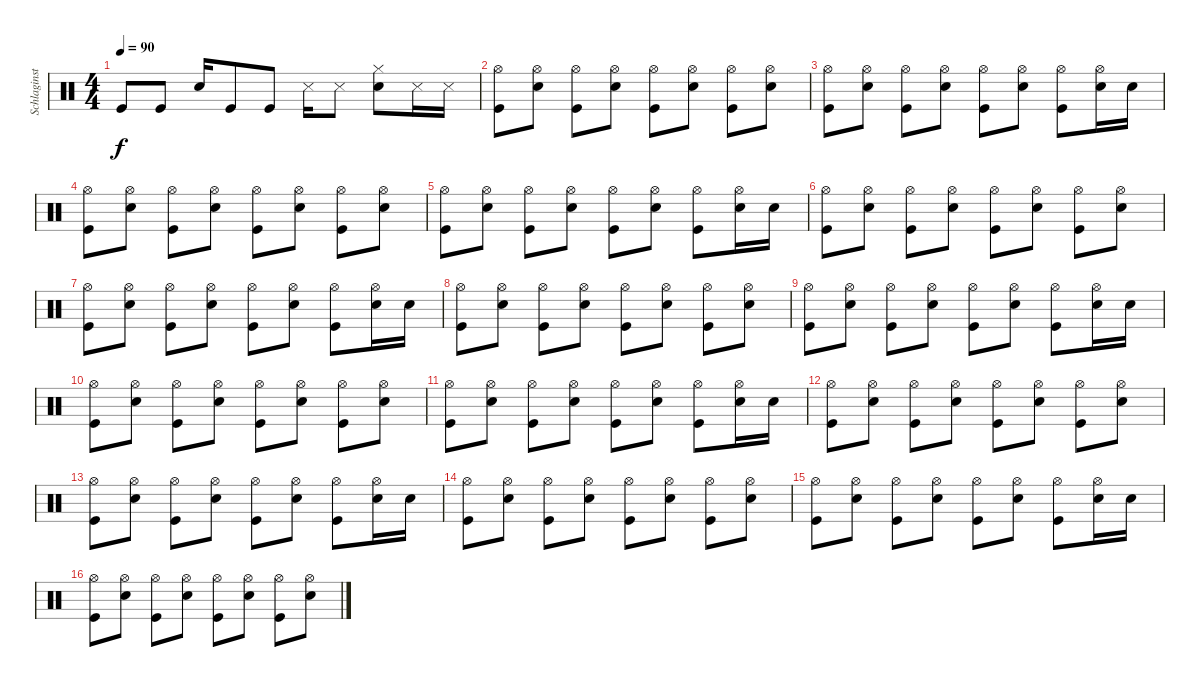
\track ("Schlaginstrumente - Auswahl" "Schlaginst") {instrument percussion}
\staff {score}
\articulation defaults
\ts (4 4)
\tempo 90
\clef neutral
\ks c "Kick (hit)".8{dy f} "Kick (hit)".8 "Snare (hit) 2".16 "Kick (hit)".8 "Kick (hit)".8 "Snare (side stick) 3".16 "Snare (side stick) 3".8
("Hi-Hat (closed)" "Snare (hit) 2").8 "Snare (side stick) 3".16 "Snare (side stick) 3".16 |
("Hi-Hat (open)" "Kick (hit)").8 ("Hi-Hat (open)" "Snare (hit) 2").8 ("Hi-Hat (open)" "Kick (hit)").8 ("Hi-Hat (open)" "Snare (hit) 2").8 ("Hi-Hat (open)" "Kick (hit)").8 ("Hi-Hat (open)" "Snare (hit) 2").8 ("Hi-Hat (open)" "Kick (hit)").8 ("Hi-Hat (open)" "Snare (hit) 2").8 |
("Hi-Hat (open)" "Kick (hit)").8 ("Hi-Hat (open)" "Snare (hit) 2").8 ("Hi-Hat (open)" "Kick (hit)").8 ("Hi-Hat (open)" "Snare (hit) 2").8 ("Hi-Hat (open)" "Kick (hit)").8 ("Hi-Hat (open)" "Snare (hit) 2").8 ("Hi-Hat (open)" "Kick (hit)").8 ("Hi-Hat (open)" "Snare (hit) 2").16 "Snare (hit) 2".16 |
("Hi-Hat (open)" "Kick (hit)").8 ("Hi-Hat (open)" "Snare (hit) 2").8 ("Hi-Hat (open)" "Kick (hit)").8 ("Hi-Hat (open)" "Snare (hit) 2").8 ("Hi-Hat (open)" "Kick (hit)").8 ("Hi-Hat (open)" "Snare (hit) 2").8 ("Hi-Hat (open)" "Kick (hit)").8 ("Hi-Hat (open)" "Snare (hit) 2").8 |
("Hi-Hat (open)" "Kick (hit)").8 ("Hi-Hat (open)" "Snare (hit) 2").8 ("Hi-Hat (open)" "Kick (hit)").8 ("Hi-Hat (open)" "Snare (hit) 2").8 ("Hi-Hat (open)" "Kick (hit)").8 ("Hi-Hat (open)" "Snare (hit) 2").8 ("Hi-Hat (open)" "Kick (hit)").8 ("Hi-Hat (open)" "Snare (hit) 2").16 "Snare (hit) 2".16 |
("Hi-Hat (open)" "Kick (hit)").8 ("Hi-Hat (open)" "Snare (hit) 2").8 ("Hi-Hat (open)" "Kick (hit)").8 ("Hi-Hat (open)" "Snare (hit) 2").8 ("Hi-Hat (open)" "Kick (hit)").8 ("Hi-Hat (open)" "Snare (hit) 2").8 ("Hi-Hat (open)" "Kick (hit)").8 ("Hi-Hat (open)" "Snare (hit) 2").8 |
("Hi-Hat (open)" "Kick (hit)").8 ("Hi-Hat (open)" "Snare (hit) 2").8 ("Hi-Hat (open)" "Kick (hit)").8 ("Hi-Hat (open)" "Snare (hit) 2").8 ("Hi-Hat (open)" "Kick (hit)").8 ("Hi-Hat (open)" "Snare (hit) 2").8 ("Hi-Hat (open)" "Kick (hit)").8 ("Hi-Hat (open)" "Snare (hit) 2").16 "Snare (hit) 2".16 |
("Hi-Hat (open)" "Kick (hit)").8 ("Hi-Hat (open)" "Snare (hit) 2").8 ("Hi-Hat (open)" "Kick (hit)").8 ("Hi-Hat (open)" "Snare (hit) 2").8 ("Hi-Hat (open)" "Kick (hit)").8 ("Hi-Hat (open)" "Snare (hit) 2").8 ("Hi-Hat (open)" "Kick (hit)").8 ("Hi-Hat (open)" "Snare (hit) 2").8 |
("Hi-Hat (open)" "Kick (hit)").8 ("Hi-Hat (open)" "Snare (hit) 2").8 ("Hi-Hat (open)" "Kick (hit)").8 ("Hi-Hat (open)" "Snare (hit) 2").8 ("Hi-Hat (open)" "Kick (hit)").8 ("Hi-Hat (open)" "Snare (hit) 2").8 ("Hi-Hat (open)" "Kick (hit)").8 ("Hi-Hat (open)" "Snare (hit) 2").16 "Snare (hit) 2".16 |
("Hi-Hat (open)" "Kick (hit)").8 ("Hi-Hat (open)" "Snare (hit) 2").8 ("Hi-Hat (open)" "Kick (hit)").8 ("Hi-Hat (open)" "Snare (hit) 2").8 ("Hi-Hat (open)" "Kick (hit)").8 ("Hi-Hat (open)" "Snare (hit) 2").8 ("Hi-Hat (open)" "Kick (hit)").8 ("Hi-Hat (open)" "Snare (hit) 2").8 |
("Hi-Hat (open)" "Kick (hit)").8 ("Hi-Hat (open)" "Snare (hit) 2").8 ("Hi-Hat (open)" "Kick (hit)").8 ("Hi-Hat (open)" "Snare (hit) 2").8 ("Hi-Hat (open)" "Kick (hit)").8 ("Hi-Hat (open)" "Snare (hit) 2").8 ("Hi-Hat (open)" "Kick (hit)").8 ("Hi-Hat (open)" "Snare (hit) 2").16 "Snare (hit) 2".16 |
("Hi-Hat (open)" "Kick (hit)").8 ("Hi-Hat (open)" "Snare (hit) 2").8 ("Hi-Hat (open)" "Kick (hit)").8 ("Hi-Hat (open)" "Snare (hit) 2").8 ("Hi-Hat (open)" "Kick (hit)").8 ("Hi-Hat (open)" "Snare (hit) 2").8 ("Hi-Hat (open)" "Kick (hit)").8 ("Hi-Hat (open)" "Snare (hit) 2").8 |
("Hi-Hat (open)" "Kick (hit)").8 ("Hi-Hat (open)" "Snare (hit) 2").8 ("Hi-Hat (open)" "Kick (hit)").8 ("Hi-Hat (open)" "Snare (hit) 2").8 ("Hi-Hat (open)" "Kick (hit)").8 ("Hi-Hat (open)" "Snare (hit) 2").8 ("Hi-Hat (open)" "Kick (hit)").8 ("Hi-Hat (open)" "Snare (hit) 2").16 "Snare (hit) 2".16 |
("Hi-Hat (open)" "Kick (hit)").8 ("Hi-Hat (open)" "Snare (hit) 2").8 ("Hi-Hat (open)" "Kick (hit)").8 ("Hi-Hat (open)" "Snare (hit) 2").8 ("Hi-Hat (open)" "Kick (hit)").8 ("Hi-Hat (open)" "Snare (hit) 2").8 ("Hi-Hat (open)" "Kick (hit)").8 ("Hi-Hat (open)" "Snare (hit) 2").8 |
("Hi-Hat (open)" "Kick (hit)").8 ("Hi-Hat (open)" "Snare (hit) 2").8 ("Hi-Hat (open)" "Kick (hit)").8 ("Hi-Hat (open)" "Snare (hit) 2").8 ("Hi-Hat (open)" "Kick (hit)").8 ("Hi-Hat (open)" "Snare (hit) 2").8 ("Hi-Hat (open)" "Kick (hit)").8 ("Hi-Hat (open)" "Snare (hit) 2").16 "Snare (hit) 2".16 |
("Hi-Hat (open)" "Kick (hit)").8 ("Hi-Hat (open)" "Snare (hit) 2").8 ("Hi-Hat (open)" "Kick (hit)").8 ("Hi-Hat (open)" "Snare (hit) 2").8 ("Hi-Hat (open)" "Kick (hit)").8 ("Hi-Hat (open)" "Snare (hit) 2").8 ("Hi-Hat (open)" "Kick (hit)").8 ("Hi-Hat (open)" "Snare (hit) 2").8
